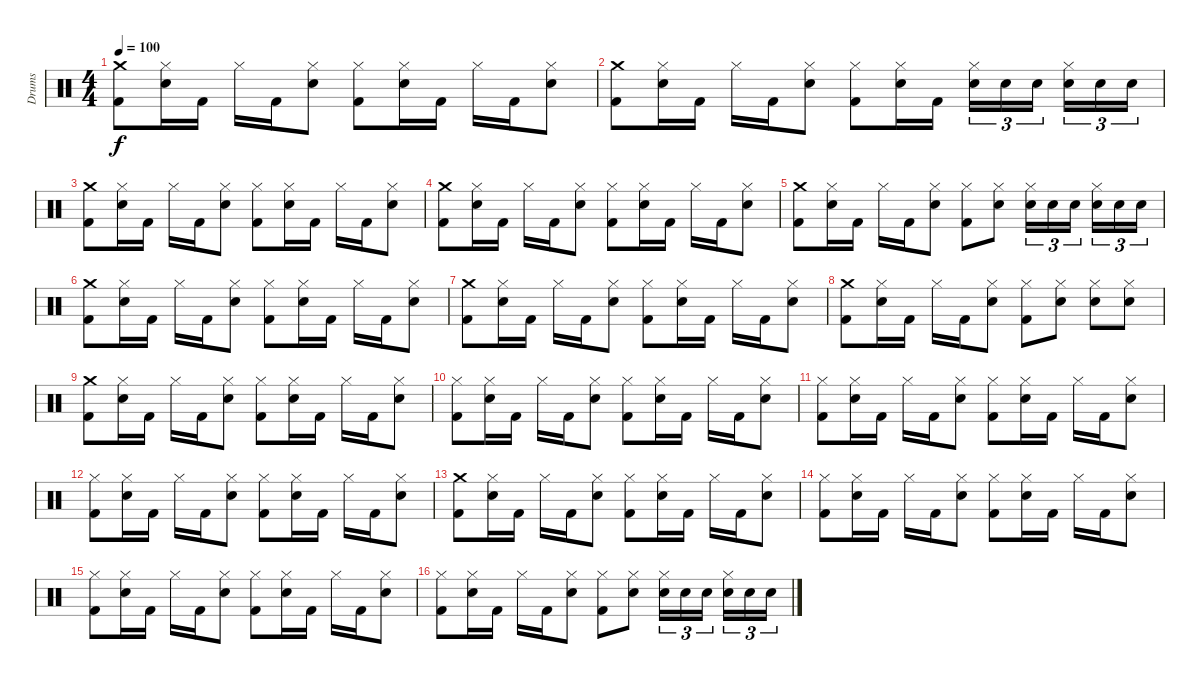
\track ("Drums" "Drums") {instrument percussion}
\staff {score}
\articulation defaults
\ts (4 4)
\tempo 100
\clef neutral
\ks c
("Crash medium (hit)" "Kick (hit) 2").8{dy f} ("Hi-Hat (closed)" "Snare (hit) 2").16 "Kick (hit) 2".16 "Hi-Hat (closed)".16 "Kick (hit) 2".16 ("Hi-Hat (closed)" "Snare (hit) 2").8 ("Hi-Hat (closed)" "Kick (hit) 2").8 ("Hi-Hat (closed)" "Snare (hit) 2").16 "Kick (hit) 2".16 "Hi-Hat (closed)".16 "Kick (hit) 2".16 ("Hi-Hat (closed)" "Snare (hit) 2").8 |
("Crash medium (hit)" "Kick (hit) 2").8 ("Hi-Hat (closed)" "Snare (hit) 2").16 "Kick (hit) 2".16 "Hi-Hat (closed)".16 "Kick (hit) 2".16 ("Hi-Hat (closed)" "Snare (hit) 2").8 ("Hi-Hat (closed)" "Kick (hit) 2").8 ("Hi-Hat (closed)" "Snare (hit) 2").16 "Kick (hit) 2".16 ("Snare (hit) 2" "Hi-Hat (closed)").16{tu (3 2)} "Snare (hit) 2".16{tu (3 2)} "Snare (hit) 2".16{tu (3 2)} ("Snare (hit) 2" "Hi-Hat (closed)").16{tu (3 2)} "Snare (hit) 2".16{tu (3 2)} "Snare (hit) 2".16{tu (3 2)} |
("Crash medium (hit)" "Kick (hit) 2").8 ("Hi-Hat (closed)" "Snare (hit) 2").16 "Kick (hit) 2".16 "Hi-Hat (closed)".16 "Kick (hit) 2".16 ("Hi-Hat (closed)" "Snare (hit) 2").8 ("Hi-Hat (closed)" "Kick (hit) 2").8 ("Hi-Hat (closed)" "Snare (hit) 2").16 "Kick (hit) 2".16 "Hi-Hat (closed)".16 "Kick (hit) 2".16 ("Hi-Hat (closed)" "Snare (hit) 2").8 |
("Crash medium (hit)" "Kick (hit) 2").8 ("Hi-Hat (closed)" "Snare (hit) 2").16 "Kick (hit) 2".16 "Hi-Hat (closed)".16 "Kick (hit) 2".16 ("Hi-Hat (closed)" "Snare (hit) 2").8 ("Hi-Hat (closed)" "Kick (hit) 2").8 ("Hi-Hat (closed)" "Snare (hit) 2").16 "Kick (hit) 2".16 "Hi-Hat (closed)".16 "Kick (hit) 2".16 ("Hi-Hat (closed)" "Snare (hit) 2").8 |
("Crash medium (hit)" "Kick (hit) 2").8 ("Hi-Hat (closed)" "Snare (hit) 2").16 "Kick (hit) 2".16 "Hi-Hat (closed)".16 "Kick (hit) 2".16 ("Hi-Hat (closed)" "Snare (hit) 2").8 ("Hi-Hat (closed)" "Kick (hit) 2").8 ("Hi-Hat (closed)" "Snare (hit) 2").8 ("Snare (hit) 2" "Hi-Hat (closed)").16{tu (3 2)} "Snare (hit) 2".16{tu (3 2)} "Snare (hit) 2".16{tu (3 2)} ("Snare (hit) 2" "Hi-Hat (closed)").16{tu (3 2)} "Snare (hit) 2".16{tu (3 2)} "Snare (hit) 2".16{tu (3 2)} |
("Crash medium (hit)" "Kick (hit) 2").8 ("Hi-Hat (closed)" "Snare (hit) 2").16 "Kick (hit) 2".16 "Hi-Hat (closed)".16 "Kick (hit) 2".16 ("Hi-Hat (closed)" "Snare (hit) 2").8 ("Hi-Hat (closed)" "Kick (hit) 2").8 ("Hi-Hat (closed)" "Snare (hit) 2").16 "Kick (hit) 2".16 "Hi-Hat (closed)".16 "Kick (hit) 2".16 ("Hi-Hat (closed)" "Snare (hit) 2").8 |
("Crash medium (hit)" "Kick (hit) 2").8 ("Hi-Hat (closed)" "Snare (hit) 2").16 "Kick (hit) 2".16 "Hi-Hat (closed)".16 "Kick (hit) 2".16 ("Hi-Hat (closed)" "Snare (hit) 2").8 ("Hi-Hat (closed)" "Kick (hit) 2").8 ("Hi-Hat (closed)" "Snare (hit) 2").16 "Kick (hit) 2".16 "Hi-Hat (closed)".16 "Kick (hit) 2".16 ("Hi-Hat (closed)" "Snare (hit) 2").8 |
("Crash medium (hit)" "Kick (hit) 2").8 ("Hi-Hat (closed)" "Snare (hit) 2").16 "Kick (hit) 2".16 "Hi-Hat (closed)".16 "Kick (hit) 2".16 ("Hi-Hat (closed)" "Snare (hit) 2").8 ("Hi-Hat (closed)" "Kick (hit) 2").8 ("Hi-Hat (closed)" "Snare (hit) 2").8 ("Snare (hit) 2" "Hi-Hat (closed)").8 ("Hi-Hat (closed)" "Snare (hit) 2").8 |
("Crash medium (hit)" "Kick (hit) 2").8 ("Hi-Hat (closed)" "Snare (hit) 2").16 "Kick (hit) 2".16 "Hi-Hat (closed)".16 "Kick (hit) 2".16 ("Hi-Hat (closed)" "Snare (hit) 2").8 ("Hi-Hat (closed)" "Kick (hit) 2").8 ("Hi-Hat (closed)" "Snare (hit) 2").16 "Kick (hit) 2".16 "Hi-Hat (closed)".16 "Kick (hit) 2".16 ("Hi-Hat (closed)" "Snare (hit) 2").8 |
("Hi-Hat (closed)" "Kick (hit) 2").8 ("Hi-Hat (closed)" "Snare (hit) 2").16 "Kick (hit) 2".16 "Hi-Hat (closed)".16 "Kick (hit) 2".16 ("Hi-Hat (closed)" "Snare (hit) 2").8 ("Hi-Hat (closed)" "Kick (hit) 2").8 ("Hi-Hat (closed)" "Snare (hit) 2").16 "Kick (hit) 2".16 "Hi-Hat (closed)".16 "Kick (hit) 2".16 ("Hi-Hat (closed)" "Snare (hit) 2").8 |
("Hi-Hat (closed)" "Kick (hit) 2").8 ("Hi-Hat (closed)" "Snare (hit) 2").16 "Kick (hit) 2".16 "Hi-Hat (closed)".16 "Kick (hit) 2".16 ("Hi-Hat (closed)" "Snare (hit) 2").8 ("Hi-Hat (closed)" "Kick (hit) 2").8 ("Hi-Hat (closed)" "Snare (hit) 2").16 "Kick (hit) 2".16 "Hi-Hat (closed)".16 "Kick (hit) 2".16 ("Hi-Hat (closed)" "Snare (hit) 2").8 |
("Hi-Hat (closed)" "Kick (hit) 2").8 ("Hi-Hat (closed)" "Snare (hit) 2").16 "Kick (hit) 2".16 "Hi-Hat (closed)".16 "Kick (hit) 2".16 ("Hi-Hat (closed)" "Snare (hit) 2").8 ("Hi-Hat (closed)" "Kick (hit) 2").8 ("Hi-Hat (closed)" "Snare (hit) 2").16 "Kick (hit) 2".16 "Hi-Hat (closed)".16 "Kick (hit) 2".16 ("Hi-Hat (closed)" "Snare (hit) 2").8 |
("Crash medium (hit)" "Kick (hit) 2").8 ("Hi-Hat (closed)" "Snare (hit) 2").16 "Kick (hit) 2".16 "Hi-Hat (closed)".16 "Kick (hit) 2".16 ("Hi-Hat (closed)" "Snare (hit) 2").8 ("Hi-Hat (closed)" "Kick (hit) 2").8 ("Hi-Hat (closed)" "Snare (hit) 2").16 "Kick (hit) 2".16 "Hi-Hat (closed)".16 "Kick (hit) 2".16 ("Hi-Hat (closed)" "Snare (hit) 2").8 |
("Hi-Hat (closed)" "Kick (hit) 2").8 ("Hi-Hat (closed)" "Snare (hit) 2").16 "Kick (hit) 2".16 "Hi-Hat (closed)".16 "Kick (hit) 2".16 ("Hi-Hat (closed)" "Snare (hit) 2").8 ("Hi-Hat (closed)" "Kick (hit) 2").8 ("Hi-Hat (closed)" "Snare (hit) 2").16 "Kick (hit) 2".16 "Hi-Hat (closed)".16 "Kick (hit) 2".16 ("Hi-Hat (closed)" "Snare (hit) 2").8 |
("Hi-Hat (closed)" "Kick (hit) 2").8 ("Hi-Hat (closed)" "Snare (hit) 2").16 "Kick (hit) 2".16 "Hi-Hat (closed)".16 "Kick (hit) 2".16 ("Hi-Hat (closed)" "Snare (hit) 2").8 ("Hi-Hat (closed)" "Kick (hit) 2").8 ("Hi-Hat (closed)" "Snare (hit) 2").16 "Kick (hit) 2".16 "Hi-Hat (closed)".16 "Kick (hit) 2".16 ("Hi-Hat (closed)" "Snare (hit) 2").8 |
("Hi-Hat (closed)" "Kick (hit) 2").8 ("Hi-Hat (closed)" "Snare (hit) 2").16 "Kick (hit) 2".16 "Hi-Hat (closed)".16 "Kick (hit) 2".16 ("Hi-Hat (closed)" "Snare (hit) 2").8 ("Hi-Hat (closed)" "Kick (hit) 2").8 ("Hi-Hat (closed)" "Snare (hit) 2").8 ("Snare (hit) 2" "Hi-Hat (closed)").16{tu (3 2)} "Snare (hit) 2".16{tu (3 2)} "Snare (hit) 2".16{tu (3 2)} ("Snare (hit) 2" "Hi-Hat (closed)").16{tu (3 2)} "Snare (hit) 2".16{tu (3 2)} "Snare (hit) 2".16{tu (3 2)}
